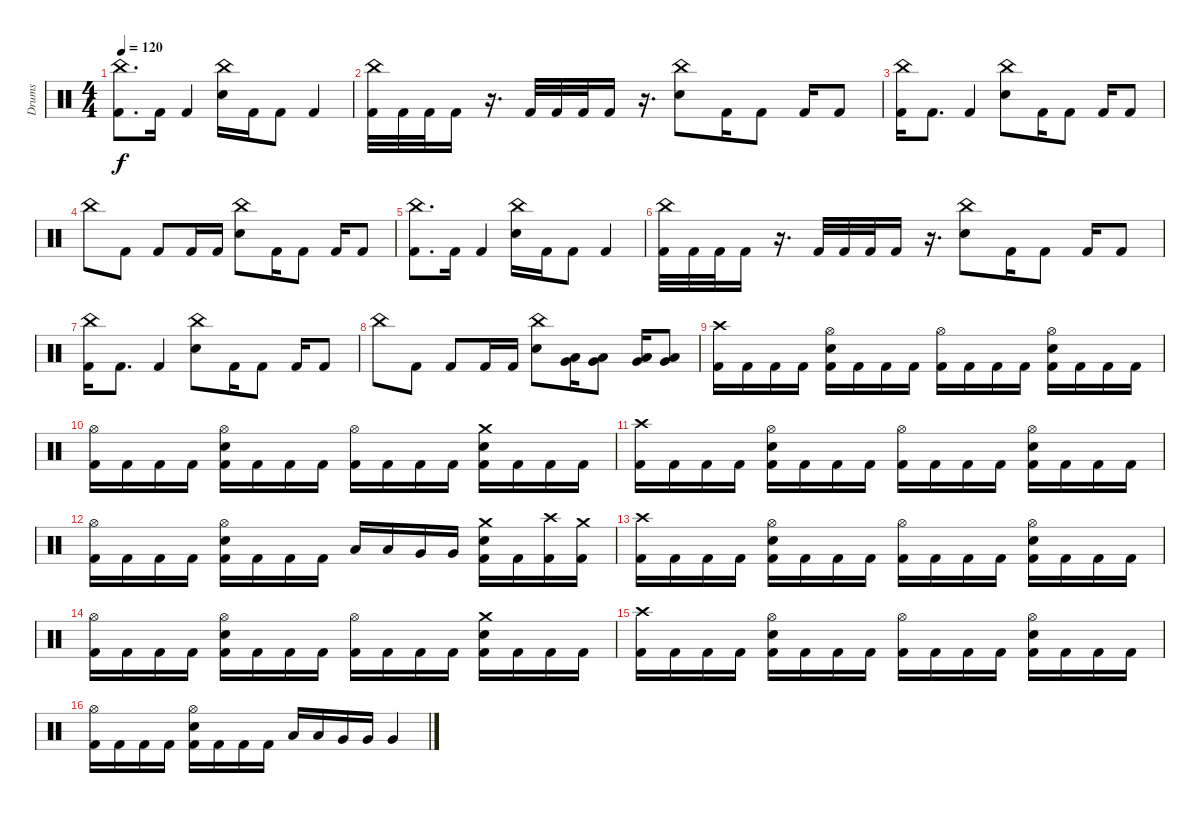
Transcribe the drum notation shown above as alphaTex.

\track ("Drums" "Drums") {instrument percussion}
\staff {score}
\articulation defaults
\ts (4 4)
\tempo 120
\clef neutral
\ks c
("China (hit)" "Kick (hit) 2").8{d dy f} "Kick (hit) 2".16 "Kick (hit) 2".4 ("China (hit)" "Electric Snare (hit)").16 "Kick (hit) 2".16 "Kick (hit) 2".8 "Kick (hit) 2".4 |
("China (hit)" "Kick (hit) 2").32 "Kick (hit) 2".32 "Kick (hit) 2".32 "Kick (hit) 2".16 r.16{d} "Kick (hit) 2".32 "Kick (hit) 2".32 "Kick (hit) 2".32 "Kick (hit) 2".16 r.16{d} ("China (hit)" "Electric Snare (hit)").8 "Kick (hit) 2".16 "Kick (hit) 2".8 "Kick (hit) 2".16 "Kick (hit) 2".8 |
("China (hit)" "Kick (hit) 2").16 "Kick (hit) 2".8{d} "Kick (hit) 2".4 ("China (hit)" "Electric Snare (hit)").8 "Kick (hit) 2".16 "Kick (hit) 2".8 "Kick (hit) 2".16 "Kick (hit) 2".8 |
"China (hit)".8 "Kick (hit) 2".8 "Kick (hit) 2".8 "Kick (hit) 2".16 "Kick (hit) 2".16 ("China (hit)" "Electric Snare (hit)").8 "Kick (hit) 2".16 "Kick (hit) 2".8 "Kick (hit) 2".16 "Kick (hit) 2".8 |
("China (hit)" "Kick (hit) 2").8{d} "Kick (hit) 2".16 "Kick (hit) 2".4 ("China (hit)" "Electric Snare (hit)").16 "Kick (hit) 2".16 "Kick (hit) 2".8 "Kick (hit) 2".4 |
("China (hit)" "Kick (hit) 2").32 "Kick (hit) 2".32 "Kick (hit) 2".32 "Kick (hit) 2".16 r.16{d} "Kick (hit) 2".32 "Kick (hit) 2".32 "Kick (hit) 2".32 "Kick (hit) 2".16 r.16{d} ("China (hit)" "Electric Snare (hit)").8 "Kick (hit) 2".16 "Kick (hit) 2".8 "Kick (hit) 2".16 "Kick (hit) 2".8 |
("China (hit)" "Kick (hit) 2").16 "Kick (hit) 2".8{d} "Kick (hit) 2".4 ("China (hit)" "Electric Snare (hit)").8 "Kick (hit) 2".16 "Kick (hit) 2".8 "Kick (hit) 2".16 "Kick (hit) 2".8 |
"China (hit)".8 "Kick (hit) 2".8 "Kick (hit) 2".8 "Kick (hit) 2".16 "Kick (hit) 2".16 ("China (hit)" "Electric Snare (hit)").8 ("Low Tom (hit)" "Very Low Tom (hit)").16 ("Low Tom (hit)" "Very Low Tom (hit)").8 ("Very Low Tom (hit)" "Low Floor Tom (hit)").16 ("Very Low Tom (hit)" "Low Floor Tom (hit)").8 |
("Crash high (hit)" "Kick (hit) 2").16 "Kick (hit) 2".16 "Kick (hit) 2".16 "Kick (hit) 2".16 ("Hi-Hat (open)" "Electric Snare (hit)" "Kick (hit) 2").16 "Kick (hit) 2".16 "Kick (hit) 2".16 "Kick (hit) 2".16 ("Hi-Hat (open)" "Kick (hit) 2").16 "Kick (hit) 2".16 "Kick (hit) 2".16 "Kick (hit) 2".16 ("Hi-Hat (open)" "Electric Snare (hit)" "Kick (hit) 2").16 "Kick (hit) 2".16 "Kick (hit) 2".16 "Kick (hit) 2".16 |
("Hi-Hat (open)" "Kick (hit) 2").16 "Kick (hit) 2".16 "Kick (hit) 2".16 "Kick (hit) 2".16 ("Hi-Hat (open)" "Electric Snare (hit)" "Kick (hit) 2").16 "Kick (hit) 2".16 "Kick (hit) 2".16 "Kick (hit) 2".16 ("Hi-Hat (open)" "Kick (hit) 2").16 "Kick (hit) 2".16 "Kick (hit) 2".16 "Kick (hit) 2".16 ("Crash medium (hit)" "Electric Snare (hit)" "Kick (hit) 2").16 "Kick (hit) 2".16 "Kick (hit) 2".16 "Kick (hit) 2".16 |
("Crash high (hit)" "Kick (hit) 2").16 "Kick (hit) 2".16 "Kick (hit) 2".16 "Kick (hit) 2".16 ("Hi-Hat (open)" "Electric Snare (hit)" "Kick (hit) 2").16 "Kick (hit) 2".16 "Kick (hit) 2".16 "Kick (hit) 2".16 ("Hi-Hat (open)" "Kick (hit) 2").16 "Kick (hit) 2".16 "Kick (hit) 2".16 "Kick (hit) 2".16 ("Hi-Hat (open)" "Electric Snare (hit)" "Kick (hit) 2").16 "Kick (hit) 2".16 "Kick (hit) 2".16 "Kick (hit) 2".16 |
("Hi-Hat (open)" "Kick (hit) 2").16 "Kick (hit) 2".16 "Kick (hit) 2".16 "Kick (hit) 2".16 ("Hi-Hat (open)" "Electric Snare (hit)" "Kick (hit) 2").16 "Kick (hit) 2".16 "Kick (hit) 2".16 "Kick (hit) 2".16 "Low Tom (hit)".16 "Low Tom (hit)".16 "Very Low Tom (hit)".16 "Very Low Tom (hit)".16 ("Crash medium (hit)" "Electric Snare (hit)" "Kick (hit) 2").16 "Kick (hit) 2".16 ("Crash high (hit)" "Kick (hit) 2").16 ("Crash medium (hit)" "Kick (hit) 2").16 |
("Crash high (hit)" "Kick (hit) 2").16 "Kick (hit) 2".16 "Kick (hit) 2".16 "Kick (hit) 2".16 ("Hi-Hat (open)" "Electric Snare (hit)" "Kick (hit) 2").16 "Kick (hit) 2".16 "Kick (hit) 2".16 "Kick (hit) 2".16 ("Hi-Hat (open)" "Kick (hit) 2").16 "Kick (hit) 2".16 "Kick (hit) 2".16 "Kick (hit) 2".16 ("Hi-Hat (open)" "Electric Snare (hit)" "Kick (hit) 2").16 "Kick (hit) 2".16 "Kick (hit) 2".16 "Kick (hit) 2".16 |
("Hi-Hat (open)" "Kick (hit) 2").16 "Kick (hit) 2".16 "Kick (hit) 2".16 "Kick (hit) 2".16 ("Hi-Hat (open)" "Electric Snare (hit)" "Kick (hit) 2").16 "Kick (hit) 2".16 "Kick (hit) 2".16 "Kick (hit) 2".16 ("Hi-Hat (open)" "Kick (hit) 2").16 "Kick (hit) 2".16 "Kick (hit) 2".16 "Kick (hit) 2".16 ("Crash medium (hit)" "Electric Snare (hit)" "Kick (hit) 2").16 "Kick (hit) 2".16 "Kick (hit) 2".16 "Kick (hit) 2".16 |
("Crash high (hit)" "Kick (hit) 2").16 "Kick (hit) 2".16 "Kick (hit) 2".16 "Kick (hit) 2".16 ("Hi-Hat (open)" "Electric Snare (hit)" "Kick (hit) 2").16 "Kick (hit) 2".16 "Kick (hit) 2".16 "Kick (hit) 2".16 ("Hi-Hat (open)" "Kick (hit) 2").16 "Kick (hit) 2".16 "Kick (hit) 2".16 "Kick (hit) 2".16 ("Hi-Hat (open)" "Electric Snare (hit)" "Kick (hit) 2").16 "Kick (hit) 2".16 "Kick (hit) 2".16 "Kick (hit) 2".16 |
("Hi-Hat (open)" "Kick (hit) 2").16 "Kick (hit) 2".16 "Kick (hit) 2".16 "Kick (hit) 2".16 ("Hi-Hat (open)" "Electric Snare (hit)" "Kick (hit) 2").16 "Kick (hit) 2".16 "Kick (hit) 2".16 "Kick (hit) 2".16 "Low Tom (hit)".16 "Low Tom (hit)".16 "Very Low Tom (hit)".16 "Very Low Tom (hit)".16 "Very Low Tom (hit)".4
